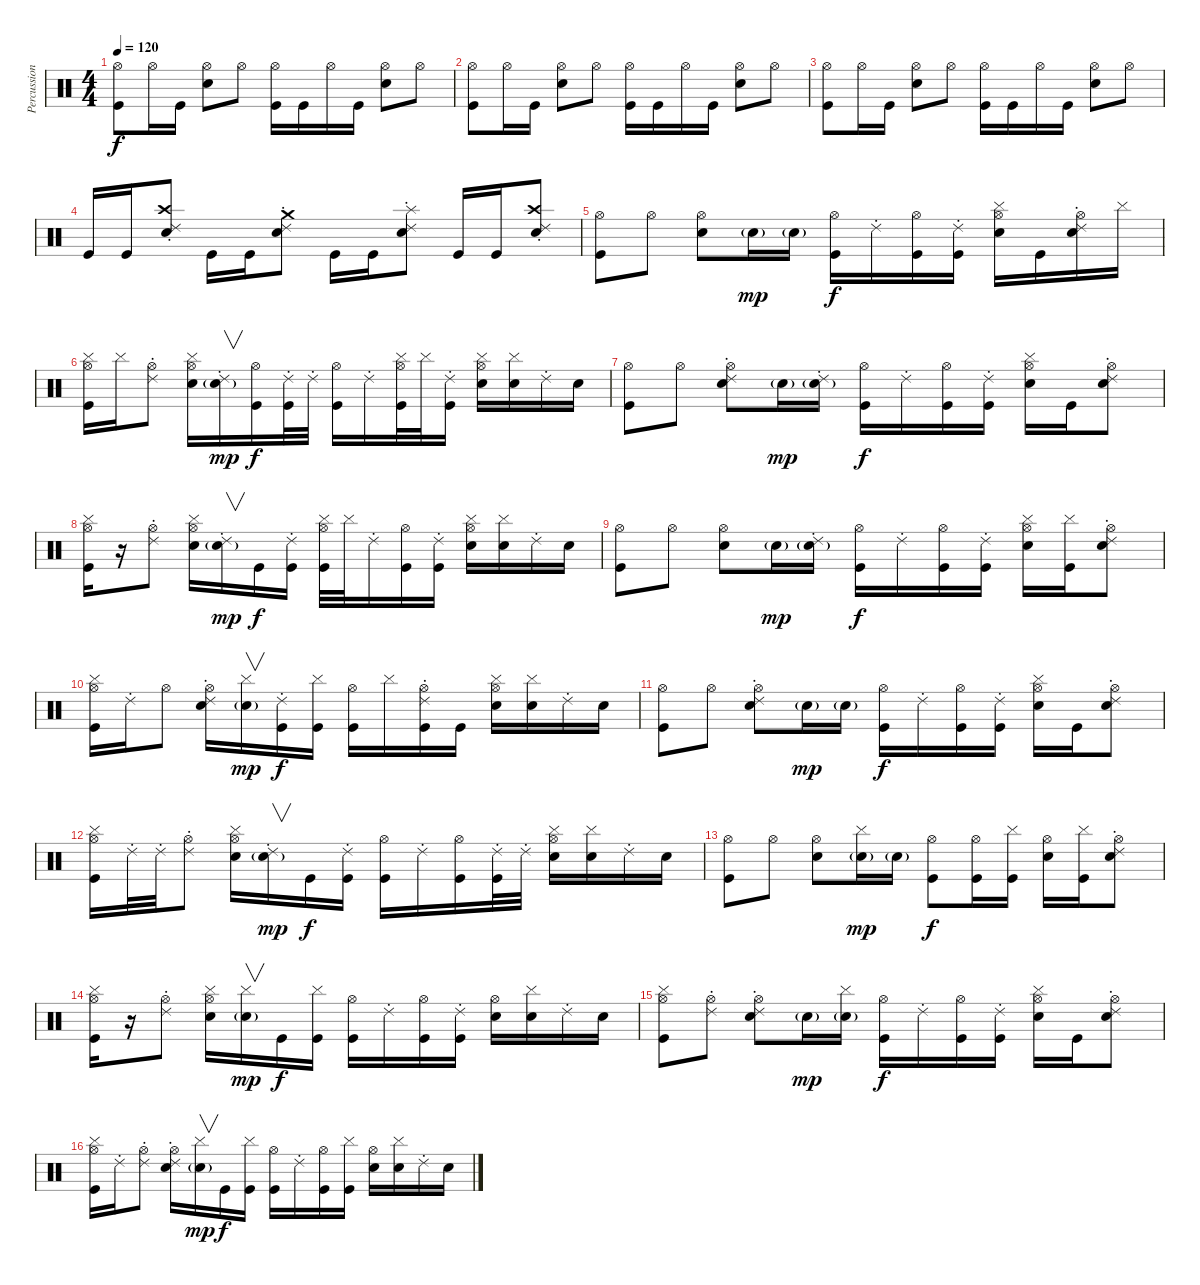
\track ("Percussion" "Percussion") {instrument percussion}
\staff {score}
\articulation defaults
\ts (4 4)
\tempo 120
\clef neutral
\ks c
("Hi-Hat (open)" "Kick (hit)").8{dy f} "Hi-Hat (open)".16 "Kick (hit)".16 ("Hi-Hat (open)" "Snare (hit) 2").8 "Hi-Hat (open)".8 ("Hi-Hat (open)" "Kick (hit)").16 "Kick (hit)".16 "Hi-Hat (open)".16 "Kick (hit)".16 ("Hi-Hat (open)" "Snare (hit) 2").8 "Hi-Hat (open)".8 |
("Hi-Hat (open)" "Kick (hit)").8 "Hi-Hat (open)".16 "Kick (hit)".16 ("Hi-Hat (open)" "Snare (hit) 2").8 "Hi-Hat (open)".8 ("Hi-Hat (open)" "Kick (hit)").16 "Kick (hit)".16 "Hi-Hat (open)".16 "Kick (hit)".16 ("Hi-Hat (open)" "Snare (hit) 2").8 "Hi-Hat (open)".8 |
("Hi-Hat (open)" "Kick (hit)").8 "Hi-Hat (open)".16 "Kick (hit)".16 ("Hi-Hat (open)" "Snare (hit) 2").8 "Hi-Hat (open)".8 ("Hi-Hat (open)" "Kick (hit)").16 "Kick (hit)".16 "Hi-Hat (open)".16 "Kick (hit)".16 ("Hi-Hat (open)" "Snare (hit) 2").8 "Hi-Hat (open)".8 |
"Kick (hit)".16 "Kick (hit)".16 ("Crash high (hit)" "Snare (hit) 2" "Ride (choke) 2").8 "Kick (hit)".16 "Kick (hit)".16 ("Crash medium (hit)" "Snare (hit) 2" "Ride (choke) 2").8 "Kick (hit)".16 "Kick (hit)".16 ("Splash (hit)" "Snare (hit) 2" "Ride (choke) 2").8 "Kick (hit)".16 "Kick (hit)".16 ("Crash high (hit)" "Snare (hit) 2" "Ride (choke) 2").8 |
("Hi-Hat (open)" "Kick (hit)").8 "Hi-Hat (open)".8 ("Hi-Hat (open)" "Snare (hit) 2").8 "Snare (hit) 2"{g}.16{dy mp} "Snare (hit) 2"{g}.16 ("Hi-Hat (open)" "Kick (hit)").16{dy f} "Ride (choke) 2".16 ("Hi-Hat (open)" "Kick (hit)").16 ("Ride (choke) 2" "Kick (hit)").16 ("Hi-Hat (open)" "Snare (hit) 2" "Cymbal (hit)").16 "Kick (hit)".16 ("Hi-Hat (open)" "Snare (hit) 2" "Ride (choke) 2").16 "Cymbal (hit)".16 |
("Hi-Hat (open)" "Cymbal (hit)" "Kick (hit)").16 "Cymbal (hit)".16 ("Hi-Hat (open)" "Ride (choke) 2").8 ("Hi-Hat (open)" "Snare (hit) 2" "Cymbal (hit)").16 ("Snare (hit) 2"{g} "Ride (choke) 2").16{v dy mp} ("Hi-Hat (open)" "Kick (hit)").16{dy f} ("Ride (choke) 2" "Kick (hit)").32 "Ride (choke) 2".32 ("Hi-Hat (open)" "Kick (hit)").16 "Ride (choke) 2".16 ("Hi-Hat (open)" "Cymbal (hit)" "Kick (hit)").32 "Cymbal (hit)".32 ("Ride (choke) 2" "Kick (hit)").16 ("Hi-Hat (open)" "Snare (hit) 2" "Cymbal (hit)").16 ("Snare (hit) 2" "Cymbal (hit)").16 "Ride (choke) 2".16 "Snare (hit) 2".16 |
("Hi-Hat (open)" "Kick (hit)").8 "Hi-Hat (open)".8 ("Hi-Hat (open)" "Snare (hit) 2" "Ride (choke) 2").8 "Snare (hit) 2"{g}.16{dy mp} ("Snare (hit) 2"{g} "Ride (choke) 2").16 ("Hi-Hat (open)" "Kick (hit)").16{dy f} "Ride (choke) 2".16 ("Hi-Hat (open)" "Kick (hit)").16 ("Ride (choke) 2" "Kick (hit)").16 ("Hi-Hat (open)" "Snare (hit) 2" "Cymbal (hit)").16 "Kick (hit)".16 ("Hi-Hat (open)" "Snare (hit) 2" "Ride (choke) 2").8 |
("Hi-Hat (open)" "Cymbal (hit)" "Kick (hit)").16 r.16 ("Hi-Hat (open)" "Ride (choke) 2").8 ("Hi-Hat (open)" "Snare (hit) 2" "Cymbal (hit)").16 ("Snare (hit) 2"{g} "Ride (choke) 2").16{v dy mp} "Kick (hit)".16{dy f} ("Ride (choke) 2" "Kick (hit)").16 ("Hi-Hat (open)" "Cymbal (hit)" "Kick (hit)").32 "Cymbal (hit)".32 "Ride (choke) 2".16 ("Hi-Hat (open)" "Kick (hit)").16 ("Ride (choke) 2" "Kick (hit)").16 ("Hi-Hat (open)" "Snare (hit) 2" "Cymbal (hit)").16 ("Snare (hit) 2" "Cymbal (hit)").16 "Ride (choke) 2".16 "Snare (hit) 2".16 |
("Hi-Hat (open)" "Kick (hit)").8 "Hi-Hat (open)".8 ("Hi-Hat (open)" "Snare (hit) 2").8 "Snare (hit) 2"{g}.16{dy mp} ("Snare (hit) 2"{g} "Ride (choke) 2").16 ("Hi-Hat (open)" "Kick (hit)").16{dy f} "Ride (choke) 2".16 ("Hi-Hat (open)" "Kick (hit)").16 ("Ride (choke) 2" "Kick (hit)").16 ("Hi-Hat (open)" "Snare (hit) 2" "Cymbal (hit)").16 ("Cymbal (hit)" "Kick (hit)").16 ("Hi-Hat (open)" "Snare (hit) 2" "Ride (choke) 2").8 |
("Hi-Hat (open)" "Cymbal (hit)" "Kick (hit)").16 "Ride (choke) 2".16 "Hi-Hat (open)".8 ("Hi-Hat (open)" "Snare (hit) 2" "Ride (choke) 2").16 ("Snare (hit) 2"{g} "Cymbal (hit)").16{v dy mp} ("Ride (choke) 2" "Kick (hit)").16{dy f} ("Cymbal (hit)" "Kick (hit)").16 ("Hi-Hat (open)" "Kick (hit)").16 "Cymbal (hit)".16 ("Hi-Hat (open)" "Ride (choke) 2" "Kick (hit)").16 "Kick (hit)".16 ("Hi-Hat (open)" "Snare (hit) 2" "Cymbal (hit)").16 ("Snare (hit) 2" "Cymbal (hit)").16 "Ride (choke) 2".16 "Snare (hit) 2".16 |
("Hi-Hat (open)" "Kick (hit)").8 "Hi-Hat (open)".8 ("Hi-Hat (open)" "Snare (hit) 2" "Ride (choke) 2").8 "Snare (hit) 2"{g}.16{dy mp} "Snare (hit) 2"{g}.16 ("Hi-Hat (open)" "Kick (hit)").16{dy f} "Ride (choke) 2".16 ("Hi-Hat (open)" "Kick (hit)").16 ("Ride (choke) 2" "Kick (hit)").16 ("Hi-Hat (open)" "Snare (hit) 2" "Cymbal (hit)").16 "Kick (hit)".16 ("Hi-Hat (open)" "Snare (hit) 2" "Ride (choke) 2").8 |
("Hi-Hat (open)" "Cymbal (hit)" "Kick (hit)").16 "Ride (choke) 2".32 "Ride (choke) 2".32 ("Hi-Hat (open)" "Ride (choke) 2").8 ("Hi-Hat (open)" "Snare (hit) 2" "Cymbal (hit)").16 ("Snare (hit) 2"{g} "Ride (choke) 2").16{v dy mp} "Kick (hit)".16{dy f} ("Ride (choke) 2" "Kick (hit)").16 ("Hi-Hat (open)" "Kick (hit)").16 "Ride (choke) 2".16 ("Hi-Hat (open)" "Kick (hit)").16 ("Ride (choke) 2" "Kick (hit)").32 "Ride (choke) 2".32 ("Hi-Hat (open)" "Snare (hit) 2" "Cymbal (hit)").16 ("Snare (hit) 2" "Cymbal (hit)").16 "Ride (choke) 2".16 "Snare (hit) 2".16 |
("Hi-Hat (open)" "Kick (hit)").8 "Hi-Hat (open)".8 ("Hi-Hat (open)" "Snare (hit) 2").8 ("Snare (hit) 2"{g} "Cymbal (hit)").16{dy mp} "Snare (hit) 2"{g}.16 ("Hi-Hat (open)" "Kick (hit)").8{dy f} ("Hi-Hat (open)" "Kick (hit)").16 ("Cymbal (hit)" "Kick (hit)").16 ("Hi-Hat (open)" "Snare (hit) 2").16 ("Cymbal (hit)" "Kick (hit)").16 ("Hi-Hat (open)" "Snare (hit) 2" "Ride (choke) 2").8 |
("Hi-Hat (open)" "Cymbal (hit)" "Kick (hit)").16 r.16 ("Hi-Hat (open)" "Ride (choke) 2").8 ("Hi-Hat (open)" "Snare (hit) 2" "Cymbal (hit)").16 ("Snare (hit) 2"{g} "Cymbal (hit)").16{v dy mp} "Kick (hit)".16{dy f} ("Cymbal (hit)" "Kick (hit)").16 ("Hi-Hat (open)" "Kick (hit)").16 "Ride (choke) 2".16 ("Hi-Hat (open)" "Kick (hit)").16 ("Ride (choke) 2" "Kick (hit)").16 ("Hi-Hat (open)" "Snare (hit) 2").16 ("Snare (hit) 2" "Cymbal (hit)").16 "Ride (choke) 2".16 "Snare (hit) 2".16 |
("Hi-Hat (open)" "Cymbal (hit)" "Kick (hit)").8 ("Hi-Hat (open)" "Ride (choke) 2").8 ("Hi-Hat (open)" "Snare (hit) 2" "Ride (choke) 2").8 "Snare (hit) 2"{g}.16{dy mp} ("Snare (hit) 2"{g} "Cymbal (hit)").16 ("Hi-Hat (open)" "Kick (hit)").16{dy f} "Ride (choke) 2".16 ("Hi-Hat (open)" "Kick (hit)").16 ("Ride (choke) 2" "Kick (hit)").16 ("Hi-Hat (open)" "Snare (hit) 2" "Cymbal (hit)").16 "Kick (hit)".16 ("Hi-Hat (open)" "Snare (hit) 2" "Ride (choke) 2").8 |
("Hi-Hat (open)" "Cymbal (hit)" "Kick (hit)").16 "Ride (choke) 2".16 ("Hi-Hat (open)" "Ride (choke) 2").8 ("Hi-Hat (open)" "Snare (hit) 2" "Ride (choke) 2").16 ("Snare (hit) 2"{g} "Cymbal (hit)").16{v dy mp} "Kick (hit)".16{dy f} ("Cymbal (hit)" "Kick (hit)").16 ("Hi-Hat (open)" "Kick (hit)").16 "Ride (choke) 2".16 ("Hi-Hat (open)" "Kick (hit)").16 ("Cymbal (hit)" "Kick (hit)").16 ("Hi-Hat (open)" "Snare (hit) 2").16 ("Snare (hit) 2" "Cymbal (hit)").16 "Ride (choke) 2".16 "Snare (hit) 2".16
